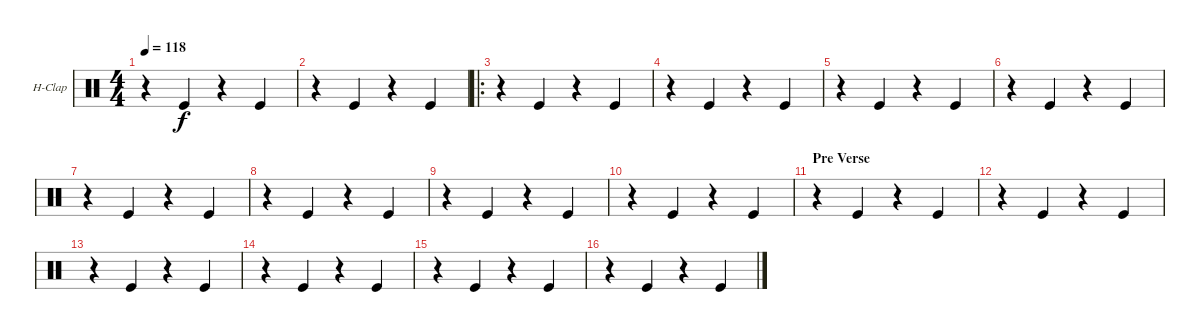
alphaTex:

\bracketExtendMode groupsimilarinstruments
\firstSystemTrackNameOrientation horizontal
\otherSystemsTrackNameOrientation horizontal
\track ("Hand Clap" "H-Clap") {instrument percussion}
\staff {score}
\articulation defaults
\ts (4 4)
\tempo 118
\clef neutral
\ks c
r.4{dy f} "Kick (hit)".4 r.4 "Kick (hit)".4 |
r.4 "Kick (hit)".4 r.4 "Kick (hit)".4 |
\ro
r.4 "Kick (hit)".4 r.4 "Kick (hit)".4 |
r.4 "Kick (hit)".4 r.4 "Kick (hit)".4 |
r.4 "Kick (hit)".4 r.4 "Kick (hit)".4 |
r.4 "Kick (hit)".4 r.4 "Kick (hit)".4 |
r.4 "Kick (hit)".4 r.4 "Kick (hit)".4 |
r.4 "Kick (hit)".4 r.4 "Kick (hit)".4 |
r.4 "Kick (hit)".4 r.4 "Kick (hit)".4 |
r.4 "Kick (hit)".4 r.4 "Kick (hit)".4 |
\section ("" "Pre Verse")
r.4 "Kick (hit)".4 r.4 "Kick (hit)".4 |
r.4 "Kick (hit)".4 r.4 "Kick (hit)".4 |
r.4 "Kick (hit)".4 r.4 "Kick (hit)".4 |
r.4 "Kick (hit)".4 r.4 "Kick (hit)".4 |
r.4 "Kick (hit)".4 r.4 "Kick (hit)".4 |
r.4 "Kick (hit)".4 r.4 "Kick (hit)".4
